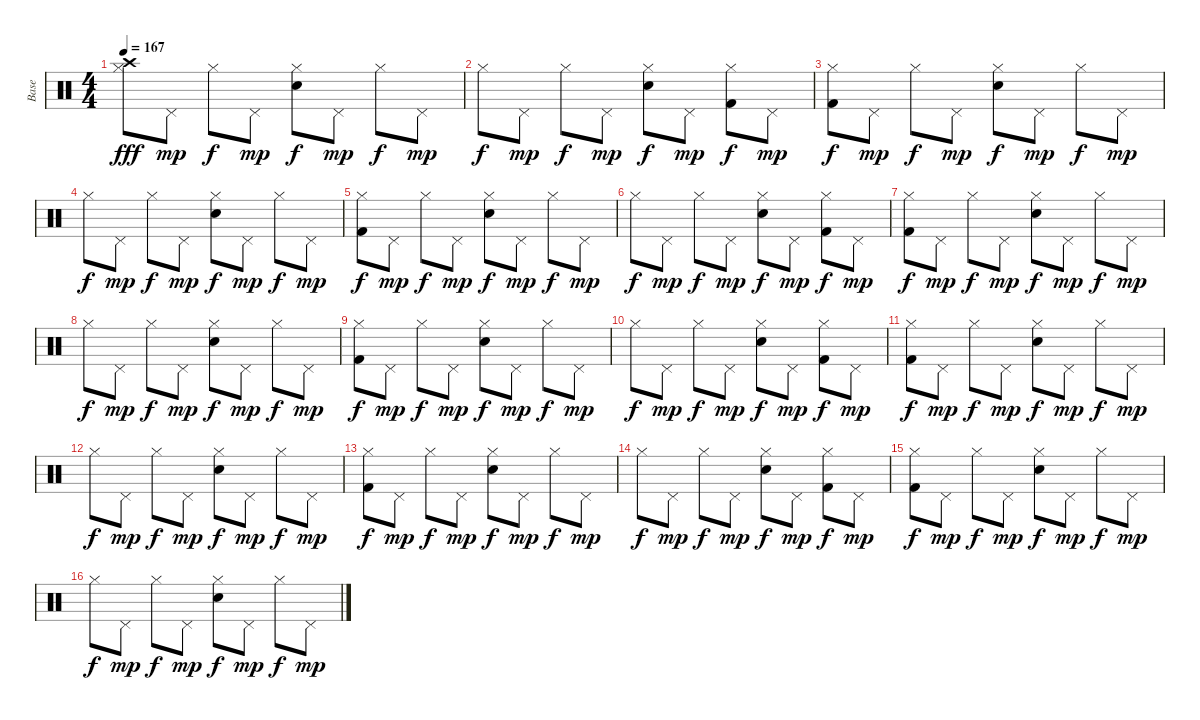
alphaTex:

\track ("Base" "Base") {instrument percussion}
\staff {score}
\articulation defaults
\ts (4 4)
\tempo 167
\clef neutral
\ks c
("Hi-Hat (closed)" "Crash high (hit)").8{dy fff} "Pedal Hi-Hat (hit)".8{dy mp} "Hi-Hat (closed)".8{dy f} "Pedal Hi-Hat (hit)".8{dy mp} ("Electric Snare (hit)" "Hi-Hat (closed)").8{dy f} "Pedal Hi-Hat (hit)".8{dy mp} "Hi-Hat (closed)".8{dy f} "Pedal Hi-Hat (hit)".8{dy mp} |
"Hi-Hat (closed)".8{dy f} "Pedal Hi-Hat (hit)".8{dy mp} "Hi-Hat (closed)".8{dy f} "Pedal Hi-Hat (hit)".8{dy mp} ("Electric Snare (hit)" "Hi-Hat (closed)").8{dy f} "Pedal Hi-Hat (hit)".8{dy mp} ("Hi-Hat (closed)" "Kick (hit) 2").8{dy f} "Pedal Hi-Hat (hit)".8{dy mp} |
("Hi-Hat (closed)" "Kick (hit) 2").8{dy f} "Pedal Hi-Hat (hit)".8{dy mp} "Hi-Hat (closed)".8{dy f} "Pedal Hi-Hat (hit)".8{dy mp} ("Electric Snare (hit)" "Hi-Hat (closed)").8{dy f} "Pedal Hi-Hat (hit)".8{dy mp} "Hi-Hat (closed)".8{dy f} "Pedal Hi-Hat (hit)".8{dy mp} |
"Hi-Hat (closed)".8{dy f} "Pedal Hi-Hat (hit)".8{dy mp} "Hi-Hat (closed)".8{dy f} "Pedal Hi-Hat (hit)".8{dy mp} ("Electric Snare (hit)" "Hi-Hat (closed)").8{dy f} "Pedal Hi-Hat (hit)".8{dy mp} "Hi-Hat (closed)".8{dy f} "Pedal Hi-Hat (hit)".8{dy mp} |
("Hi-Hat (closed)" "Kick (hit) 2").8{dy f} "Pedal Hi-Hat (hit)".8{dy mp} "Hi-Hat (closed)".8{dy f} "Pedal Hi-Hat (hit)".8{dy mp} ("Electric Snare (hit)" "Hi-Hat (closed)").8{dy f} "Pedal Hi-Hat (hit)".8{dy mp} "Hi-Hat (closed)".8{dy f} "Pedal Hi-Hat (hit)".8{dy mp} |
"Hi-Hat (closed)".8{dy f} "Pedal Hi-Hat (hit)".8{dy mp} "Hi-Hat (closed)".8{dy f} "Pedal Hi-Hat (hit)".8{dy mp} ("Electric Snare (hit)" "Hi-Hat (closed)").8{dy f} "Pedal Hi-Hat (hit)".8{dy mp} ("Hi-Hat (closed)" "Kick (hit) 2").8{dy f} "Pedal Hi-Hat (hit)".8{dy mp} |
("Hi-Hat (closed)" "Kick (hit) 2").8{dy f} "Pedal Hi-Hat (hit)".8{dy mp} "Hi-Hat (closed)".8{dy f} "Pedal Hi-Hat (hit)".8{dy mp} ("Electric Snare (hit)" "Hi-Hat (closed)").8{dy f} "Pedal Hi-Hat (hit)".8{dy mp} "Hi-Hat (closed)".8{dy f} "Pedal Hi-Hat (hit)".8{dy mp} |
"Hi-Hat (closed)".8{dy f} "Pedal Hi-Hat (hit)".8{dy mp} "Hi-Hat (closed)".8{dy f} "Pedal Hi-Hat (hit)".8{dy mp} ("Electric Snare (hit)" "Hi-Hat (closed)").8{dy f} "Pedal Hi-Hat (hit)".8{dy mp} "Hi-Hat (closed)".8{dy f} "Pedal Hi-Hat (hit)".8{dy mp} |
("Hi-Hat (closed)" "Kick (hit) 2").8{dy f} "Pedal Hi-Hat (hit)".8{dy mp} "Hi-Hat (closed)".8{dy f} "Pedal Hi-Hat (hit)".8{dy mp} ("Electric Snare (hit)" "Hi-Hat (closed)").8{dy f} "Pedal Hi-Hat (hit)".8{dy mp} "Hi-Hat (closed)".8{dy f} "Pedal Hi-Hat (hit)".8{dy mp} |
"Hi-Hat (closed)".8{dy f} "Pedal Hi-Hat (hit)".8{dy mp} "Hi-Hat (closed)".8{dy f} "Pedal Hi-Hat (hit)".8{dy mp} ("Electric Snare (hit)" "Hi-Hat (closed)").8{dy f} "Pedal Hi-Hat (hit)".8{dy mp} ("Hi-Hat (closed)" "Kick (hit) 2").8{dy f} "Pedal Hi-Hat (hit)".8{dy mp} |
("Hi-Hat (closed)" "Kick (hit) 2").8{dy f} "Pedal Hi-Hat (hit)".8{dy mp} "Hi-Hat (closed)".8{dy f} "Pedal Hi-Hat (hit)".8{dy mp} ("Electric Snare (hit)" "Hi-Hat (closed)").8{dy f} "Pedal Hi-Hat (hit)".8{dy mp} "Hi-Hat (closed)".8{dy f} "Pedal Hi-Hat (hit)".8{dy mp} |
"Hi-Hat (closed)".8{dy f} "Pedal Hi-Hat (hit)".8{dy mp} "Hi-Hat (closed)".8{dy f} "Pedal Hi-Hat (hit)".8{dy mp} ("Electric Snare (hit)" "Hi-Hat (closed)").8{dy f} "Pedal Hi-Hat (hit)".8{dy mp} "Hi-Hat (closed)".8{dy f} "Pedal Hi-Hat (hit)".8{dy mp} |
("Hi-Hat (closed)" "Kick (hit) 2").8{dy f} "Pedal Hi-Hat (hit)".8{dy mp} "Hi-Hat (closed)".8{dy f} "Pedal Hi-Hat (hit)".8{dy mp} ("Electric Snare (hit)" "Hi-Hat (closed)").8{dy f} "Pedal Hi-Hat (hit)".8{dy mp} "Hi-Hat (closed)".8{dy f} "Pedal Hi-Hat (hit)".8{dy mp} |
"Hi-Hat (closed)".8{dy f} "Pedal Hi-Hat (hit)".8{dy mp} "Hi-Hat (closed)".8{dy f} "Pedal Hi-Hat (hit)".8{dy mp} ("Electric Snare (hit)" "Hi-Hat (closed)").8{dy f} "Pedal Hi-Hat (hit)".8{dy mp} ("Hi-Hat (closed)" "Kick (hit) 2").8{dy f} "Pedal Hi-Hat (hit)".8{dy mp} |
("Hi-Hat (closed)" "Kick (hit) 2").8{dy f} "Pedal Hi-Hat (hit)".8{dy mp} "Hi-Hat (closed)".8{dy f} "Pedal Hi-Hat (hit)".8{dy mp} ("Electric Snare (hit)" "Hi-Hat (closed)").8{dy f} "Pedal Hi-Hat (hit)".8{dy mp} "Hi-Hat (closed)".8{dy f} "Pedal Hi-Hat (hit)".8{dy mp} |
"Hi-Hat (closed)".8{dy f} "Pedal Hi-Hat (hit)".8{dy mp} "Hi-Hat (closed)".8{dy f} "Pedal Hi-Hat (hit)".8{dy mp} ("Electric Snare (hit)" "Hi-Hat (closed)").8{dy f} "Pedal Hi-Hat (hit)".8{dy mp} "Hi-Hat (closed)".8{dy f} "Pedal Hi-Hat (hit)".8{dy mp}
